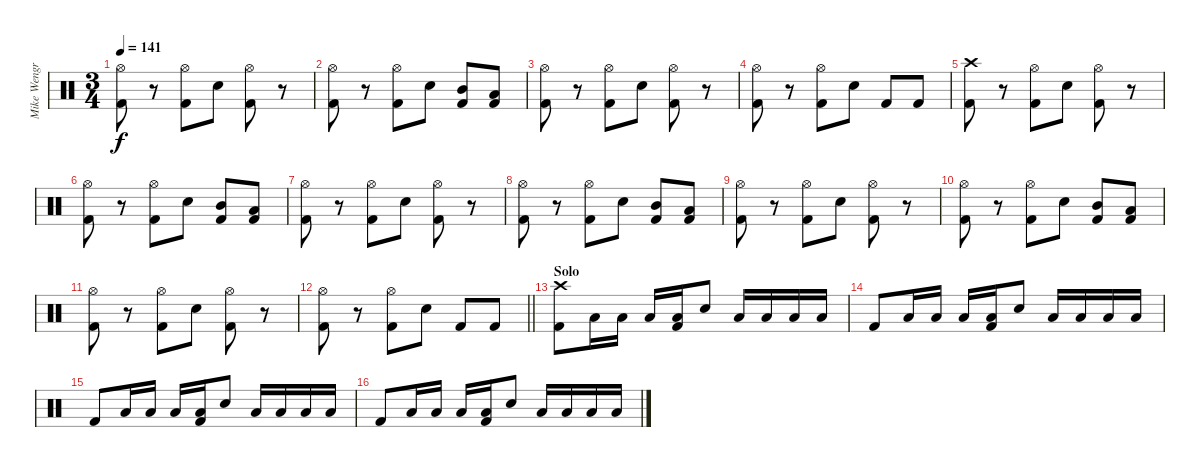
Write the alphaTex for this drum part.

\track ("Mike Wengren (Drums)" "Mike Wengr") {instrument percussion}
\staff {score}
\articulation defaults
\ts (3 4)
\tempo 141
\clef neutral
\ks c
("Hi-Hat (open)" "Kick (hit) 2").8{dy f} r.8 ("Hi-Hat (open)" "Kick (hit) 2").8 "Electric Snare (hit)".8 ("Hi-Hat (open)" "Kick (hit) 2").8 r.8 |
("Hi-Hat (open)" "Kick (hit) 2").8 r.8 ("Hi-Hat (open)" "Kick (hit) 2").8 "Electric Snare (hit)".8 ("Mid Tom (hit)" "Kick (hit) 2").8 ("Low Tom (hit)" "Kick (hit) 2").8 |
("Hi-Hat (open)" "Kick (hit) 2").8 r.8 ("Hi-Hat (open)" "Kick (hit) 2").8 "Electric Snare (hit)".8 ("Hi-Hat (open)" "Kick (hit) 2").8 r.8 |
("Hi-Hat (open)" "Kick (hit) 2").8 r.8 ("Hi-Hat (open)" "Kick (hit) 2").8 "Electric Snare (hit)".8 "Kick (hit) 2".8 "Kick (hit) 2".8 |
("Crash high (hit)" "Kick (hit) 2").8 r.8 ("Hi-Hat (open)" "Kick (hit) 2").8 "Electric Snare (hit)".8 ("Hi-Hat (open)" "Kick (hit) 2").8 r.8 |
("Hi-Hat (open)" "Kick (hit) 2").8 r.8 ("Hi-Hat (open)" "Kick (hit) 2").8 "Electric Snare (hit)".8 ("Mid Tom (hit)" "Kick (hit) 2").8 ("Low Tom (hit)" "Kick (hit) 2").8 |
("Hi-Hat (open)" "Kick (hit) 2").8 r.8 ("Hi-Hat (open)" "Kick (hit) 2").8 "Electric Snare (hit)".8 ("Hi-Hat (open)" "Kick (hit) 2").8 r.8 |
("Hi-Hat (open)" "Kick (hit) 2").8 r.8 ("Hi-Hat (open)" "Kick (hit) 2").8 "Electric Snare (hit)".8 ("Mid Tom (hit)" "Kick (hit) 2").8 ("Low Tom (hit)" "Kick (hit) 2").8 |
("Hi-Hat (open)" "Kick (hit) 2").8 r.8 ("Hi-Hat (open)" "Kick (hit) 2").8 "Electric Snare (hit)".8 ("Hi-Hat (open)" "Kick (hit) 2").8 r.8 |
("Hi-Hat (open)" "Kick (hit) 2").8 r.8 ("Hi-Hat (open)" "Kick (hit) 2").8 "Electric Snare (hit)".8 ("Mid Tom (hit)" "Kick (hit) 2").8 ("Low Tom (hit)" "Kick (hit) 2").8 |
("Hi-Hat (open)" "Kick (hit) 2").8 r.8 ("Hi-Hat (open)" "Kick (hit) 2").8 "Electric Snare (hit)".8 ("Hi-Hat (open)" "Kick (hit) 2").8 r.8 |
\barLineRight lightlight
("Hi-Hat (open)" "Kick (hit) 2").8 r.8 ("Hi-Hat (open)" "Kick (hit) 2").8 "Electric Snare (hit)".8 "Kick (hit) 2".8 "Kick (hit) 2".8 |
\section ("" "Solo")
("Crash high (hit)" "Kick (hit) 2").8 "Low Tom (hit)".16 "Low Tom (hit)".16 "Low Tom (hit)".16 ("Low Tom (hit)" "Kick (hit) 2").16 "Electric Snare (hit)".8 "Low Tom (hit)".16 "Low Tom (hit)".16 "Low Tom (hit)".16 "Low Tom (hit)".16 |
"Kick (hit) 2".8 "Low Tom (hit)".16 "Low Tom (hit)".16 "Low Tom (hit)".16 ("Low Tom (hit)" "Kick (hit) 2").16 "Electric Snare (hit)".8 "Low Tom (hit)".16 "Low Tom (hit)".16 "Low Tom (hit)".16 "Low Tom (hit)".16 |
"Kick (hit) 2".8 "Low Tom (hit)".16 "Low Tom (hit)".16 "Low Tom (hit)".16 ("Low Tom (hit)" "Kick (hit) 2").16 "Electric Snare (hit)".8 "Low Tom (hit)".16 "Low Tom (hit)".16 "Low Tom (hit)".16 "Low Tom (hit)".16 |
"Kick (hit) 2".8 "Low Tom (hit)".16 "Low Tom (hit)".16 "Low Tom (hit)".16 ("Low Tom (hit)" "Kick (hit) 2").16 "Electric Snare (hit)".8 "Low Tom (hit)".16 "Low Tom (hit)".16 "Low Tom (hit)".16 "Low Tom (hit)".16
